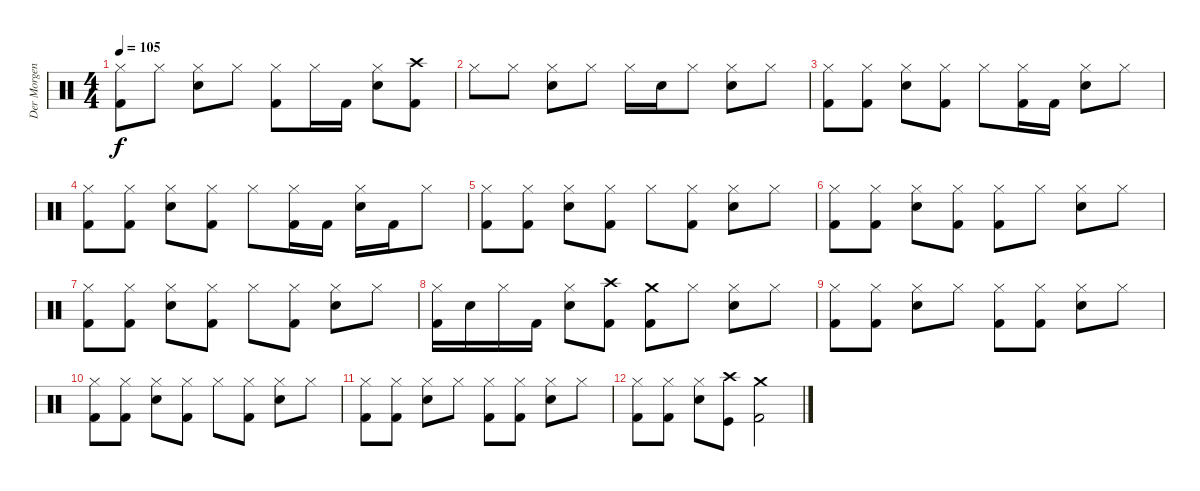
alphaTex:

\track ("Der Morgenstern" "Der Morgen") {instrument percussion}
\staff {score}
\articulation defaults
\ts (4 4)
\tempo 105
\clef neutral
\ks c
("Hi-Hat (closed)" "Kick (hit) 2").8{dy f} "Hi-Hat (closed)".8 ("Hi-Hat (closed)" "Electric Snare (hit)").8 "Hi-Hat (closed)".8 ("Hi-Hat (closed)" "Kick (hit) 2").8 "Hi-Hat (closed)".16 "Kick (hit) 2".16 ("Hi-Hat (closed)" "Electric Snare (hit)").8 ("Crash high (hit)" "Kick (hit) 2").8 |
"Hi-Hat (closed)".8 "Hi-Hat (closed)".8 ("Hi-Hat (closed)" "Electric Snare (hit)").8 "Hi-Hat (closed)".8 "Hi-Hat (closed)".16 "Electric Snare (hit)".16 "Hi-Hat (closed)".8 ("Hi-Hat (closed)" "Electric Snare (hit)").8 "Hi-Hat (closed)".8 |
("Hi-Hat (closed)" "Kick (hit) 2").8 ("Hi-Hat (closed)" "Kick (hit) 2").8 ("Hi-Hat (closed)" "Electric Snare (hit)").8 ("Hi-Hat (closed)" "Kick (hit) 2").8 "Hi-Hat (closed)".8 ("Hi-Hat (closed)" "Kick (hit) 2").16 "Kick (hit) 2".16 ("Hi-Hat (closed)" "Electric Snare (hit)").8 "Hi-Hat (closed)".8 |
("Hi-Hat (closed)" "Kick (hit) 2").8 ("Hi-Hat (closed)" "Kick (hit) 2").8 ("Hi-Hat (closed)" "Electric Snare (hit)").8 ("Hi-Hat (closed)" "Kick (hit) 2").8 "Hi-Hat (closed)".8 ("Hi-Hat (closed)" "Kick (hit) 2").16 "Kick (hit) 2".16 ("Hi-Hat (closed)" "Electric Snare (hit)").16 "Kick (hit) 2".16 "Hi-Hat (closed)".8 |
("Hi-Hat (closed)" "Kick (hit) 2").8 ("Hi-Hat (closed)" "Kick (hit) 2").8 ("Hi-Hat (closed)" "Electric Snare (hit)").8 ("Hi-Hat (closed)" "Kick (hit) 2").8 "Hi-Hat (closed)".8 ("Hi-Hat (closed)" "Kick (hit) 2").8 ("Hi-Hat (closed)" "Electric Snare (hit)").8 "Hi-Hat (closed)".8 |
("Hi-Hat (closed)" "Kick (hit) 2").8 ("Hi-Hat (closed)" "Kick (hit) 2").8 ("Hi-Hat (closed)" "Electric Snare (hit)").8 ("Hi-Hat (closed)" "Kick (hit) 2").8 ("Hi-Hat (closed)" "Kick (hit) 2").8 "Hi-Hat (closed)".8 ("Hi-Hat (closed)" "Electric Snare (hit)").8 "Hi-Hat (closed)".8 |
("Hi-Hat (closed)" "Kick (hit) 2").8 ("Hi-Hat (closed)" "Kick (hit) 2").8 ("Hi-Hat (closed)" "Electric Snare (hit)").8 ("Hi-Hat (closed)" "Kick (hit) 2").8 "Hi-Hat (closed)".8 ("Hi-Hat (closed)" "Kick (hit) 2").8 ("Hi-Hat (closed)" "Electric Snare (hit)").8 "Hi-Hat (closed)".8 |
("Hi-Hat (closed)" "Kick (hit) 2").16 "Electric Snare (hit)".16 "Hi-Hat (closed)".16 "Kick (hit) 2".16 ("Hi-Hat (closed)" "Electric Snare (hit)").8 ("Crash high (hit)" "Kick (hit) 2").8 ("Crash medium (hit)" "Kick (hit) 2").8 "Hi-Hat (closed)".8 ("Hi-Hat (closed)" "Electric Snare (hit)").8 "Hi-Hat (closed)".8 |
("Hi-Hat (closed)" "Kick (hit) 2").8 ("Hi-Hat (closed)" "Kick (hit) 2").8 ("Hi-Hat (closed)" "Electric Snare (hit)").8 "Hi-Hat (closed)".8 ("Hi-Hat (closed)" "Kick (hit) 2").8 ("Hi-Hat (closed)" "Kick (hit) 2").8 ("Hi-Hat (closed)" "Electric Snare (hit)").8 "Hi-Hat (closed)".8 |
("Hi-Hat (closed)" "Kick (hit) 2").8 ("Hi-Hat (closed)" "Kick (hit) 2").8 ("Hi-Hat (closed)" "Electric Snare (hit)").8 ("Hi-Hat (closed)" "Kick (hit) 2").8 "Hi-Hat (closed)".8 ("Hi-Hat (closed)" "Kick (hit) 2").8 ("Hi-Hat (closed)" "Electric Snare (hit)").8 "Hi-Hat (closed)".8 |
("Hi-Hat (closed)" "Kick (hit) 2").8 ("Hi-Hat (closed)" "Kick (hit) 2").8 ("Hi-Hat (closed)" "Electric Snare (hit)").8 "Hi-Hat (closed)".8 ("Hi-Hat (closed)" "Kick (hit) 2").8 ("Hi-Hat (closed)" "Kick (hit) 2").8 ("Hi-Hat (closed)" "Electric Snare (hit)").8 "Hi-Hat (closed)".8 |
("Hi-Hat (closed)" "Kick (hit) 2").8 ("Hi-Hat (closed)" "Kick (hit) 2").8 ("Hi-Hat (closed)" "Electric Snare (hit)").8 ("Crash high (hit)" "Kick (hit)").8 ("Crash medium (hit)" "Kick (hit) 2").2
